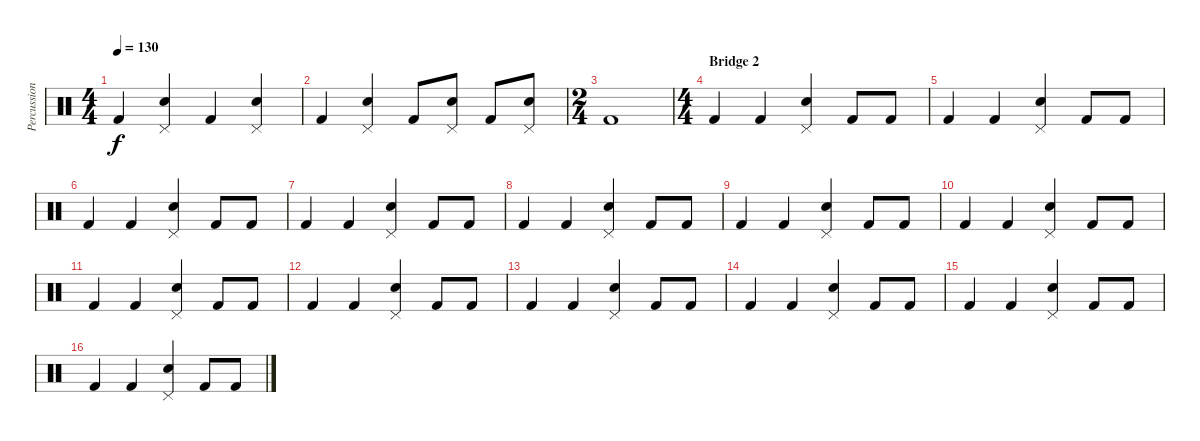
\track ("Percussioni" "Percussion") {instrument percussion}
\staff {score}
\articulation defaults
\ts (4 4)
\tempo 130
\clef neutral
\ks c "Kick (hit) 2".4{dy f}
("Pedal Hi-Hat (hit)" "Snare (hit) 2").4 "Kick (hit) 2".4 ("Pedal Hi-Hat (hit)" "Snare (hit) 2").4 |
"Kick (hit) 2".4 ("Pedal Hi-Hat (hit)" "Snare (hit) 2").4 "Kick (hit) 2".8 ("Pedal Hi-Hat (hit)" "Snare (hit) 2").8 "Kick (hit) 2".8 ("Pedal Hi-Hat (hit)" "Snare (hit) 2").8 |
\ts (2 4)
"Kick (hit) 2".1 |
\ts (4 4)
\section ("" "Bridge 2")
"Kick (hit) 2".4 "Kick (hit) 2".4 ("Pedal Hi-Hat (hit)" "Snare (hit) 2").4 "Kick (hit) 2".8 "Kick (hit) 2".8 |
"Kick (hit) 2".4 "Kick (hit) 2".4 ("Pedal Hi-Hat (hit)" "Snare (hit) 2").4 "Kick (hit) 2".8 "Kick (hit) 2".8 |
"Kick (hit) 2".4 "Kick (hit) 2".4 ("Pedal Hi-Hat (hit)" "Snare (hit) 2").4 "Kick (hit) 2".8 "Kick (hit) 2".8 |
"Kick (hit) 2".4 "Kick (hit) 2".4 ("Pedal Hi-Hat (hit)" "Snare (hit) 2").4 "Kick (hit) 2".8 "Kick (hit) 2".8 |
"Kick (hit) 2".4 "Kick (hit) 2".4 ("Pedal Hi-Hat (hit)" "Snare (hit) 2").4 "Kick (hit) 2".8 "Kick (hit) 2".8 |
"Kick (hit) 2".4 "Kick (hit) 2".4 ("Pedal Hi-Hat (hit)" "Snare (hit) 2").4 "Kick (hit) 2".8 "Kick (hit) 2".8 |
"Kick (hit) 2".4 "Kick (hit) 2".4 ("Pedal Hi-Hat (hit)" "Snare (hit) 2").4 "Kick (hit) 2".8 "Kick (hit) 2".8 |
"Kick (hit) 2".4 "Kick (hit) 2".4 ("Pedal Hi-Hat (hit)" "Snare (hit) 2").4 "Kick (hit) 2".8 "Kick (hit) 2".8 |
"Kick (hit) 2".4 "Kick (hit) 2".4 ("Pedal Hi-Hat (hit)" "Snare (hit) 2").4 "Kick (hit) 2".8 "Kick (hit) 2".8 |
"Kick (hit) 2".4 "Kick (hit) 2".4 ("Pedal Hi-Hat (hit)" "Snare (hit) 2").4 "Kick (hit) 2".8 "Kick (hit) 2".8 |
"Kick (hit) 2".4 "Kick (hit) 2".4 ("Pedal Hi-Hat (hit)" "Snare (hit) 2").4 "Kick (hit) 2".8 "Kick (hit) 2".8 |
"Kick (hit) 2".4 "Kick (hit) 2".4 ("Pedal Hi-Hat (hit)" "Snare (hit) 2").4 "Kick (hit) 2".8 "Kick (hit) 2".8 |
"Kick (hit) 2".4 "Kick (hit) 2".4 ("Pedal Hi-Hat (hit)" "Snare (hit) 2").4 "Kick (hit) 2".8 "Kick (hit) 2".8
